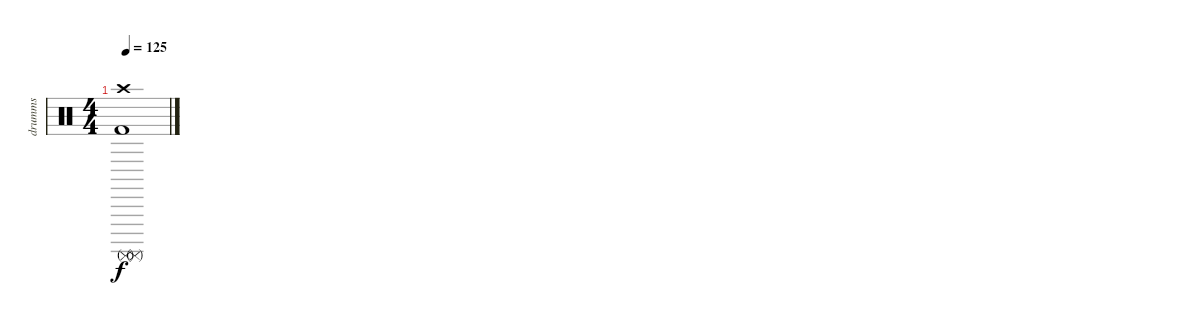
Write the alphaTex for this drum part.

\track ("drumms" "drumms") {instrument percussion}
\staff {score}
\articulation defaults
\ts (4 4)
\tempo 125
\clef neutral
\ks c
("Surdo (mute)" "Surdo (mute)" "Kick (hit) 2" "Crash high (hit)").1{dy f}
